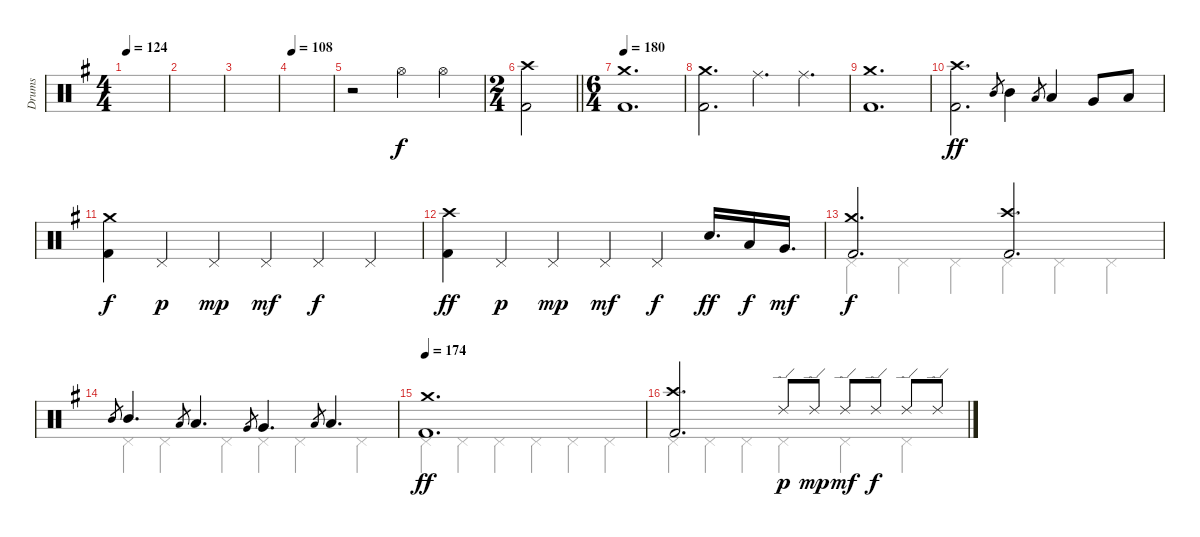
\track ("Drums" "Drums") {instrument percussion}
\staff {score}
\articulation defaults
\voice
\ts (4 4)
\tempo 124
\clef neutral
\ks g
|
|
|
\tempo 108
|
r.2 "Hi-Hat (open)".4{dy f} "Hi-Hat (open)".4 |
\ts (2 4)
\barLineRight lightlight
("Crash high (hit)" "Kick (hit) 2").2 |
\ts (6 4)
\tempo 180
("Crash medium (hit)" "Kick (hit) 2").1{d} |
("Crash medium (hit)" "Kick (hit) 2").2{d} "Ride (middle)".4{d} "Ride (middle)".4{d} |
("Crash medium (hit)" "Kick (hit) 2").1{d} |
("Crash high (hit)" "Kick (hit) 2").2{d dy ff} "Mid Tom (hit)".8{gr} "Mid Tom (hit)".4 "Low Tom (hit)".8{gr} "Low Tom (hit)".4 "Very Low Tom (hit)".8 "Low Floor Tom (hit)".8 |
("Crash medium (hit)" "Kick (hit) 2").4{dy f} "Pedal Hi-Hat (hit)".4{dy p} "Pedal Hi-Hat (hit)".4{dy mp} "Pedal Hi-Hat (hit)".4{dy mf} "Pedal Hi-Hat (hit)".4{dy f} "Pedal Hi-Hat (hit)".4 |
("Crash high (hit)" "Kick (hit) 2").4{dy ff} "Pedal Hi-Hat (hit)".4{dy p} "Pedal Hi-Hat (hit)".4{dy mp} "Pedal Hi-Hat (hit)".4{dy mf} "Pedal Hi-Hat (hit)".4{dy f} "Electric Snare (hit)".16{d dy ff} "Low Tom (hit)".16{dy f} "Very Low Tom (hit)".16{d dy mf} |
("Crash medium (hit)" "Kick (hit) 2").2{d dy f} ("Crash high (hit)" "Kick (hit) 2").2{d} |
"Mid Tom (hit)".8{gr} "Mid Tom (hit)".4{d} "Low Tom (hit)".8{gr} "Low Tom (hit)".4{d} "Very Low Tom (hit)".8{gr} "Very Low Tom (hit)".4{d} "Low Floor Tom (hit)".8{gr} "Low Floor Tom (hit)".4{d} |
\tempo 174
("Crash medium (hit)" "Kick (hit) 2").1{d dy ff} |
("Crash high (hit)" "Kick (hit) 2").2{d} "Ride (edge) 2".8{dy p} "Ride (edge) 2".8{dy mp} "Ride (edge) 2".8{dy mf} "Ride (edge) 2".8{dy f} "Ride (edge) 2".8 "Ride (edge) 2".8
\voice
\clef neutral
\ottava regular
\simile none
\ks g
|
|
|
|
|
\barLineRight lightlight
|
|
|
|
|
|
|
"Pedal Hi-Hat (hit)".4 "Pedal Hi-Hat (hit)".4 "Pedal Hi-Hat (hit)".4 "Pedal Hi-Hat (hit)".4 "Pedal Hi-Hat (hit)".4 "Pedal Hi-Hat (hit)".4 |
"Pedal Hi-Hat (hit)".4 "Pedal Hi-Hat (hit)".4 "Pedal Hi-Hat (hit)".4 "Pedal Hi-Hat (hit)".4 "Pedal Hi-Hat (hit)".4 "Pedal Hi-Hat (hit)".4 |
"Pedal Hi-Hat (hit)".4 "Pedal Hi-Hat (hit)".4 "Pedal Hi-Hat (hit)".4 "Pedal Hi-Hat (hit)".4 "Pedal Hi-Hat (hit)".4 "Pedal Hi-Hat (hit)".4 |
"Pedal Hi-Hat (hit)".4 "Pedal Hi-Hat (hit)".4 "Pedal Hi-Hat (hit)".4 "Pedal Hi-Hat (hit)".4 "Pedal Hi-Hat (hit)".4 "Pedal Hi-Hat (hit)".4
